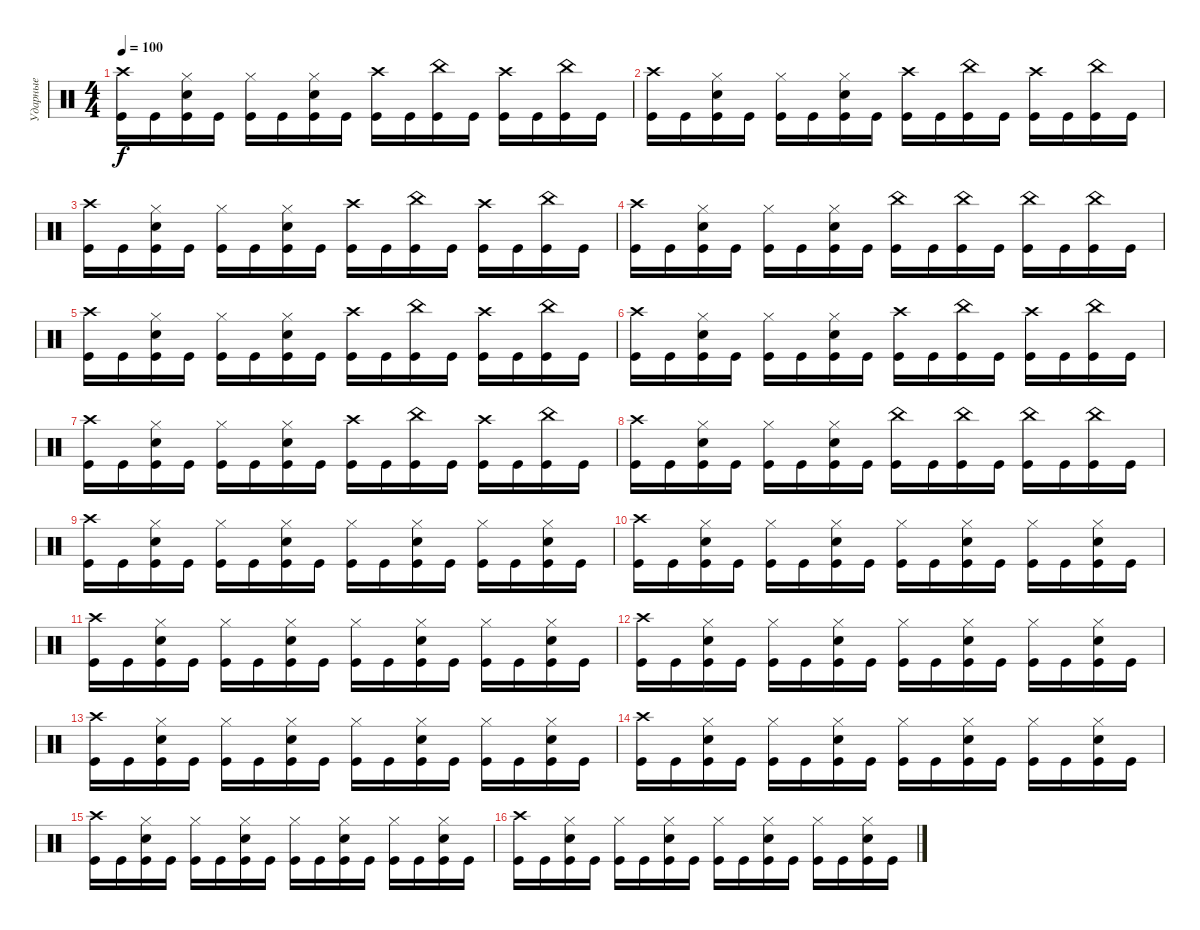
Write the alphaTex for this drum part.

\track ("Ударные" "Ударные") {instrument percussion}
\staff {score}
\articulation defaults
\ts (4 4)
\tempo 100
\clef neutral
\ks c
("Kick (hit)" "Crash high (hit)").16{dy f} "Kick (hit)".16 ("Kick (hit)" "Hi-Hat (closed)" "Snare (hit) 2").16 "Kick (hit)".16 ("Kick (hit)" "Hi-Hat (closed)").16 "Kick (hit)".16 ("Kick (hit)" "Hi-Hat (closed)" "Snare (hit) 2").16 "Kick (hit)".16 ("Kick (hit)" "Crash high (hit)").16 "Kick (hit)".16 ("Kick (hit)" "China (hit)").16 "Kick (hit)".16 ("Kick (hit)" "Crash high (hit)").16 "Kick (hit)".16 ("Kick (hit)" "China (hit)").16 "Kick (hit)".16 |
("Kick (hit)" "Crash high (hit)").16 "Kick (hit)".16 ("Kick (hit)" "Hi-Hat (closed)" "Snare (hit) 2").16 "Kick (hit)".16 ("Kick (hit)" "Hi-Hat (closed)").16 "Kick (hit)".16 ("Kick (hit)" "Hi-Hat (closed)" "Snare (hit) 2").16 "Kick (hit)".16 ("Kick (hit)" "Crash high (hit)").16 "Kick (hit)".16 ("Kick (hit)" "China (hit)").16 "Kick (hit)".16 ("Kick (hit)" "Crash high (hit)").16 "Kick (hit)".16 ("Kick (hit)" "China (hit)").16 "Kick (hit)".16 |
("Kick (hit)" "Crash high (hit)").16 "Kick (hit)".16 ("Kick (hit)" "Hi-Hat (closed)" "Snare (hit) 2").16 "Kick (hit)".16 ("Kick (hit)" "Hi-Hat (closed)").16 "Kick (hit)".16 ("Kick (hit)" "Hi-Hat (closed)" "Snare (hit) 2").16 "Kick (hit)".16 ("Kick (hit)" "Crash high (hit)").16 "Kick (hit)".16 ("Kick (hit)" "China (hit)").16 "Kick (hit)".16 ("Kick (hit)" "Crash high (hit)").16 "Kick (hit)".16 ("Kick (hit)" "China (hit)").16 "Kick (hit)".16 |
("Kick (hit)" "Crash high (hit)").16 "Kick (hit)".16 ("Kick (hit)" "Hi-Hat (closed)" "Snare (hit) 2").16 "Kick (hit)".16 ("Kick (hit)" "Hi-Hat (closed)").16 "Kick (hit)".16 ("Kick (hit)" "Hi-Hat (closed)" "Snare (hit) 2").16 "Kick (hit)".16 ("Kick (hit)" "China (hit)").16 "Kick (hit)".16 ("Kick (hit)" "China (hit)").16 "Kick (hit)".16 ("Kick (hit)" "China (hit)").16 "Kick (hit)".16 ("Kick (hit)" "China (hit)").16 "Kick (hit)".16 |
("Kick (hit)" "Crash high (hit)").16 "Kick (hit)".16 ("Kick (hit)" "Hi-Hat (closed)" "Snare (hit) 2").16 "Kick (hit)".16 ("Kick (hit)" "Hi-Hat (closed)").16 "Kick (hit)".16 ("Kick (hit)" "Hi-Hat (closed)" "Snare (hit) 2").16 "Kick (hit)".16 ("Kick (hit)" "Crash high (hit)").16 "Kick (hit)".16 ("Kick (hit)" "China (hit)").16 "Kick (hit)".16 ("Kick (hit)" "Crash high (hit)").16 "Kick (hit)".16 ("Kick (hit)" "China (hit)").16 "Kick (hit)".16 |
("Kick (hit)" "Crash high (hit)").16 "Kick (hit)".16 ("Kick (hit)" "Hi-Hat (closed)" "Snare (hit) 2").16 "Kick (hit)".16 ("Kick (hit)" "Hi-Hat (closed)").16 "Kick (hit)".16 ("Kick (hit)" "Hi-Hat (closed)" "Snare (hit) 2").16 "Kick (hit)".16 ("Kick (hit)" "Crash high (hit)").16 "Kick (hit)".16 ("Kick (hit)" "China (hit)").16 "Kick (hit)".16 ("Kick (hit)" "Crash high (hit)").16 "Kick (hit)".16 ("Kick (hit)" "China (hit)").16 "Kick (hit)".16 |
("Kick (hit)" "Crash high (hit)").16 "Kick (hit)".16 ("Kick (hit)" "Hi-Hat (closed)" "Snare (hit) 2").16 "Kick (hit)".16 ("Kick (hit)" "Hi-Hat (closed)").16 "Kick (hit)".16 ("Kick (hit)" "Hi-Hat (closed)" "Snare (hit) 2").16 "Kick (hit)".16 ("Kick (hit)" "Crash high (hit)").16 "Kick (hit)".16 ("Kick (hit)" "China (hit)").16 "Kick (hit)".16 ("Kick (hit)" "Crash high (hit)").16 "Kick (hit)".16 ("Kick (hit)" "China (hit)").16 "Kick (hit)".16 |
("Kick (hit)" "Crash high (hit)").16 "Kick (hit)".16 ("Kick (hit)" "Hi-Hat (closed)" "Snare (hit) 2").16 "Kick (hit)".16 ("Kick (hit)" "Hi-Hat (closed)").16 "Kick (hit)".16 ("Kick (hit)" "Hi-Hat (closed)" "Snare (hit) 2").16 "Kick (hit)".16 ("Kick (hit)" "China (hit)").16 "Kick (hit)".16 ("Kick (hit)" "China (hit)").16 "Kick (hit)".16 ("Kick (hit)" "China (hit)").16 "Kick (hit)".16 ("Kick (hit)" "China (hit)").16 "Kick (hit)".16 |
("Kick (hit)" "Crash high (hit)").16 "Kick (hit)".16 ("Kick (hit)" "Hi-Hat (closed)" "Snare (hit) 2").16 "Kick (hit)".16 ("Kick (hit)" "Hi-Hat (closed)").16 "Kick (hit)".16 ("Kick (hit)" "Hi-Hat (closed)" "Snare (hit) 2").16 "Kick (hit)".16 ("Kick (hit)" "Hi-Hat (closed)").16 "Kick (hit)".16 ("Kick (hit)" "Hi-Hat (closed)" "Snare (hit) 2").16 "Kick (hit)".16 ("Kick (hit)" "Hi-Hat (closed)").16 "Kick (hit)".16 ("Kick (hit)" "Hi-Hat (closed)" "Snare (hit) 2").16 "Kick (hit)".16 |
("Kick (hit)" "Crash high (hit)").16 "Kick (hit)".16 ("Kick (hit)" "Hi-Hat (closed)" "Snare (hit) 2").16 "Kick (hit)".16 ("Kick (hit)" "Hi-Hat (closed)").16 "Kick (hit)".16 ("Kick (hit)" "Hi-Hat (closed)" "Snare (hit) 2").16 "Kick (hit)".16 ("Kick (hit)" "Hi-Hat (closed)").16 "Kick (hit)".16 ("Kick (hit)" "Hi-Hat (closed)" "Snare (hit) 2").16 "Kick (hit)".16 ("Kick (hit)" "Hi-Hat (closed)").16 "Kick (hit)".16 ("Kick (hit)" "Hi-Hat (closed)" "Snare (hit) 2").16 "Kick (hit)".16 |
("Kick (hit)" "Crash high (hit)").16 "Kick (hit)".16 ("Kick (hit)" "Hi-Hat (closed)" "Snare (hit) 2").16 "Kick (hit)".16 ("Kick (hit)" "Hi-Hat (closed)").16 "Kick (hit)".16 ("Kick (hit)" "Hi-Hat (closed)" "Snare (hit) 2").16 "Kick (hit)".16 ("Kick (hit)" "Hi-Hat (closed)").16 "Kick (hit)".16 ("Kick (hit)" "Hi-Hat (closed)" "Snare (hit) 2").16 "Kick (hit)".16 ("Kick (hit)" "Hi-Hat (closed)").16 "Kick (hit)".16 ("Kick (hit)" "Hi-Hat (closed)" "Snare (hit) 2").16 "Kick (hit)".16 |
("Kick (hit)" "Crash high (hit)").16 "Kick (hit)".16 ("Kick (hit)" "Hi-Hat (closed)" "Snare (hit) 2").16 "Kick (hit)".16 ("Kick (hit)" "Hi-Hat (closed)").16 "Kick (hit)".16 ("Kick (hit)" "Hi-Hat (closed)" "Snare (hit) 2").16 "Kick (hit)".16 ("Kick (hit)" "Hi-Hat (closed)").16 "Kick (hit)".16 ("Kick (hit)" "Hi-Hat (closed)" "Snare (hit) 2").16 "Kick (hit)".16 ("Kick (hit)" "Hi-Hat (closed)").16 "Kick (hit)".16 ("Kick (hit)" "Hi-Hat (closed)" "Snare (hit) 2").16 "Kick (hit)".16 |
("Kick (hit)" "Crash high (hit)").16 "Kick (hit)".16 ("Kick (hit)" "Hi-Hat (closed)" "Snare (hit) 2").16 "Kick (hit)".16 ("Kick (hit)" "Hi-Hat (closed)").16 "Kick (hit)".16 ("Kick (hit)" "Hi-Hat (closed)" "Snare (hit) 2").16 "Kick (hit)".16 ("Kick (hit)" "Hi-Hat (closed)").16 "Kick (hit)".16 ("Kick (hit)" "Hi-Hat (closed)" "Snare (hit) 2").16 "Kick (hit)".16 ("Kick (hit)" "Hi-Hat (closed)").16 "Kick (hit)".16 ("Kick (hit)" "Hi-Hat (closed)" "Snare (hit) 2").16 "Kick (hit)".16 |
("Kick (hit)" "Crash high (hit)").16 "Kick (hit)".16 ("Kick (hit)" "Hi-Hat (closed)" "Snare (hit) 2").16 "Kick (hit)".16 ("Kick (hit)" "Hi-Hat (closed)").16 "Kick (hit)".16 ("Kick (hit)" "Hi-Hat (closed)" "Snare (hit) 2").16 "Kick (hit)".16 ("Kick (hit)" "Hi-Hat (closed)").16 "Kick (hit)".16 ("Kick (hit)" "Hi-Hat (closed)" "Snare (hit) 2").16 "Kick (hit)".16 ("Kick (hit)" "Hi-Hat (closed)").16 "Kick (hit)".16 ("Kick (hit)" "Hi-Hat (closed)" "Snare (hit) 2").16 "Kick (hit)".16 |
("Kick (hit)" "Crash high (hit)").16 "Kick (hit)".16 ("Kick (hit)" "Hi-Hat (closed)" "Snare (hit) 2").16 "Kick (hit)".16 ("Kick (hit)" "Hi-Hat (closed)").16 "Kick (hit)".16 ("Kick (hit)" "Hi-Hat (closed)" "Snare (hit) 2").16 "Kick (hit)".16 ("Kick (hit)" "Hi-Hat (closed)").16 "Kick (hit)".16 ("Kick (hit)" "Hi-Hat (closed)" "Snare (hit) 2").16 "Kick (hit)".16 ("Kick (hit)" "Hi-Hat (closed)").16 "Kick (hit)".16 ("Kick (hit)" "Hi-Hat (closed)" "Snare (hit) 2").16 "Kick (hit)".16 |
("Kick (hit)" "Crash high (hit)").16 "Kick (hit)".16 ("Kick (hit)" "Hi-Hat (closed)" "Snare (hit) 2").16 "Kick (hit)".16 ("Kick (hit)" "Hi-Hat (closed)").16 "Kick (hit)".16 ("Kick (hit)" "Hi-Hat (closed)" "Snare (hit) 2").16 "Kick (hit)".16 ("Kick (hit)" "Hi-Hat (closed)").16 "Kick (hit)".16 ("Kick (hit)" "Hi-Hat (closed)" "Snare (hit) 2").16 "Kick (hit)".16 ("Kick (hit)" "Hi-Hat (closed)").16 "Kick (hit)".16 ("Kick (hit)" "Hi-Hat (closed)" "Snare (hit) 2").16 "Kick (hit)".16
